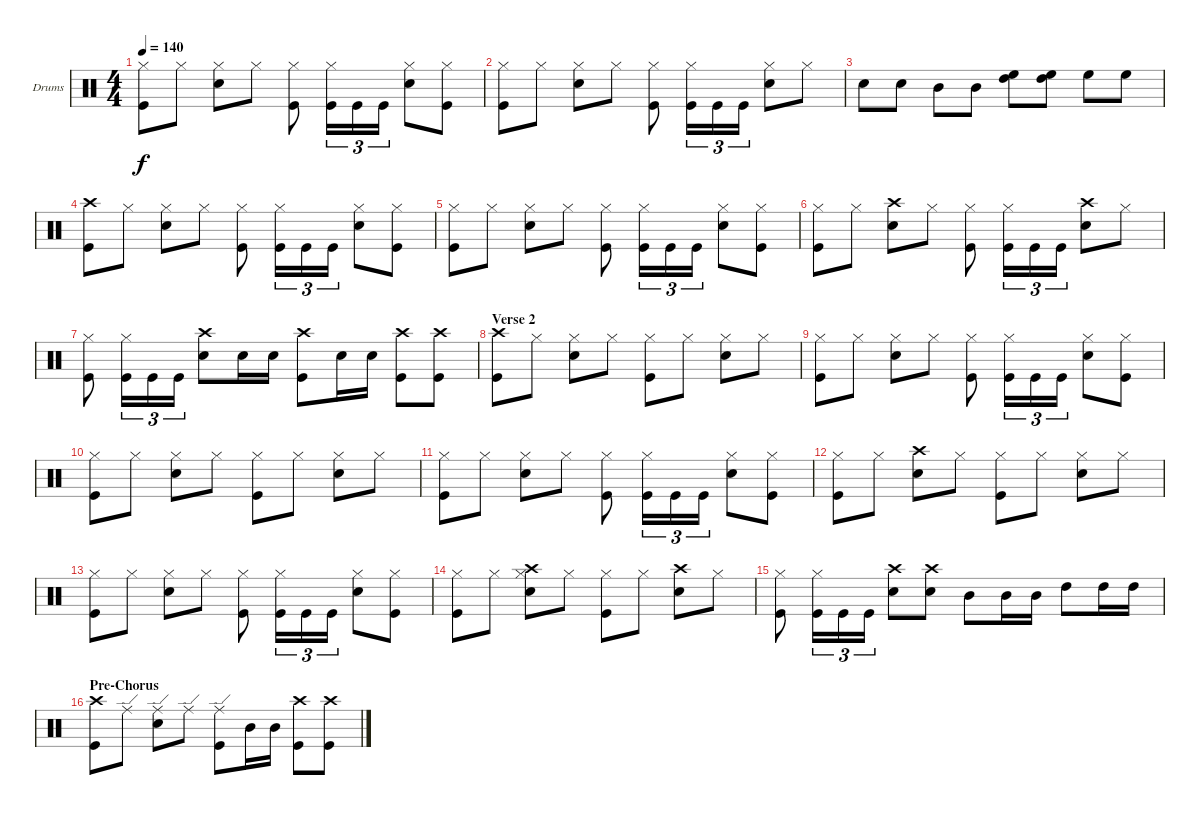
\defaultSystemsLayout 4
\bracketExtendMode groupsimilarinstruments
\firstSystemTrackNameOrientation horizontal
\otherSystemsTrackNameOrientation horizontal
\track ("Drums" "Drums") {instrument percussion}
\staff {score}
\articulation defaults
\ts (4 4)
\tempo 140
\clef neutral
\ks c
("Hi-Hat (closed)" "Kick (hit)").8{dy f} "Hi-Hat (closed)".8 ("Snare (hit) 2" "Hi-Hat (closed)").8 "Hi-Hat (closed)".8 ("Kick (hit)" "Hi-Hat (closed)").8 ("Kick (hit)" "Hi-Hat (closed)").16{tu (3 2)} "Kick (hit)".16{tu (3 2)} "Kick (hit)".16{tu (3 2)} ("Snare (hit) 2" "Hi-Hat (closed)").8 ("Kick (hit)" "Hi-Hat (closed)").8 |
("Hi-Hat (closed)" "Kick (hit)").8 "Hi-Hat (closed)".8 ("Snare (hit) 2" "Hi-Hat (closed)").8 "Hi-Hat (closed)".8 ("Kick (hit)" "Hi-Hat (closed)").8 ("Kick (hit)" "Hi-Hat (closed)").16{tu (3 2)} "Kick (hit)".16{tu (3 2)} "Kick (hit)".16{tu (3 2)} ("Snare (hit) 2" "Hi-Hat (closed)").8 "Hi-Hat (closed)".8 |
"Snare (hit) 2".8 "Snare (hit) 2".8 "Mid Tom (hit)".8 "Mid Tom (hit)".8 ("High Floor Tom (hit)" "High Tom (hit)").8 ("High Floor Tom (hit)" "High Tom (hit)").8 "High Floor Tom (hit)".8 "High Floor Tom (hit)".8 |
("Crash high (hit)" "Kick (hit)").8 "Hi-Hat (closed)".8 ("Snare (hit) 2" "Hi-Hat (closed)").8 "Hi-Hat (closed)".8 ("Kick (hit)" "Hi-Hat (closed)").8 ("Kick (hit)" "Hi-Hat (closed)").16{tu (3 2)} "Kick (hit)".16{tu (3 2)} "Kick (hit)".16{tu (3 2)} ("Snare (hit) 2" "Hi-Hat (closed)").8 ("Kick (hit)" "Hi-Hat (closed)").8 |
("Hi-Hat (closed)" "Kick (hit)").8 "Hi-Hat (closed)".8 ("Snare (hit) 2" "Hi-Hat (closed)").8 "Hi-Hat (closed)".8 ("Kick (hit)" "Hi-Hat (closed)").8 ("Kick (hit)" "Hi-Hat (closed)").16{tu (3 2)} "Kick (hit)".16{tu (3 2)} "Kick (hit)".16{tu (3 2)} ("Snare (hit) 2" "Hi-Hat (closed)").8 ("Kick (hit)" "Hi-Hat (closed)").8 |
("Hi-Hat (closed)" "Kick (hit)").8 "Hi-Hat (closed)".8 ("Crash high (hit)" "Snare (hit) 2").8 "Hi-Hat (closed)".8 ("Kick (hit)" "Hi-Hat (closed)").8 ("Kick (hit)" "Hi-Hat (closed)").16{tu (3 2)} "Kick (hit)".16{tu (3 2)} "Kick (hit)".16{tu (3 2)} ("Crash high (hit)" "Snare (hit) 2").8 "Hi-Hat (closed)".8 |
("Kick (hit)" "Hi-Hat (closed)").8 ("Kick (hit)" "Hi-Hat (closed)").16{tu (3 2)} "Kick (hit)".16{tu (3 2)} "Kick (hit)".16{tu (3 2)} ("Snare (hit) 2" "Crash high (hit)").8 "Snare (hit) 2".16 "Snare (hit) 2".16 ("Kick (hit)" "Crash high (hit)").8 "Snare (hit) 2".16 "Snare (hit) 2".16 ("Kick (hit)" "Crash high (hit)").8 ("Kick (hit)" "Crash high (hit)").8 |
\section ("" "Verse 2")
("Kick (hit)" "Crash high (hit)").8 "Hi-Hat (closed)".8 ("Snare (hit) 2" "Hi-Hat (closed)").8 "Hi-Hat (closed)".8 ("Kick (hit)" "Hi-Hat (closed)").8 "Hi-Hat (closed)".8 ("Snare (hit) 2" "Hi-Hat (closed)").8 "Hi-Hat (closed)".8 |
("Kick (hit)" "Hi-Hat (closed)").8 "Hi-Hat (closed)".8 ("Hi-Hat (closed)" "Snare (hit) 2").8 "Hi-Hat (closed)".8 ("Kick (hit)" "Hi-Hat (closed)").8 ("Kick (hit)" "Hi-Hat (closed)").16{tu (3 2)} "Kick (hit)".16{tu (3 2)} "Kick (hit)".16{tu (3 2)} ("Snare (hit) 2" "Hi-Hat (closed)").8 ("Kick (hit)" "Hi-Hat (closed)").8 |
("Hi-Hat (closed)" "Kick (hit)").8 "Hi-Hat (closed)".8 ("Hi-Hat (closed)" "Snare (hit) 2").8 "Hi-Hat (closed)".8 ("Hi-Hat (closed)" "Kick (hit)").8 "Hi-Hat (closed)".8 ("Snare (hit) 2" "Hi-Hat (closed)").8 "Hi-Hat (closed)".8 |
("Kick (hit)" "Hi-Hat (closed)").8 "Hi-Hat (closed)".8 ("Hi-Hat (closed)" "Snare (hit) 2").8 "Hi-Hat (closed)".8 ("Kick (hit)" "Hi-Hat (closed)").8 ("Kick (hit)" "Hi-Hat (closed)").16{tu (3 2)} "Kick (hit)".16{tu (3 2)} "Kick (hit)".16{tu (3 2)} ("Snare (hit) 2" "Hi-Hat (closed)").8 ("Kick (hit)" "Hi-Hat (closed)").8 |
("Hi-Hat (closed)" "Kick (hit)").8 "Hi-Hat (closed)".8 ("Crash high (hit)" "Snare (hit) 2").8 "Hi-Hat (closed)".8 ("Hi-Hat (closed)" "Kick (hit)").8 "Hi-Hat (closed)".8 ("Snare (hit) 2" "Hi-Hat (closed)").8 "Hi-Hat (closed)".8 |
("Kick (hit)" "Hi-Hat (closed)").8 "Hi-Hat (closed)".8 ("Hi-Hat (closed)" "Snare (hit) 2").8 "Hi-Hat (closed)".8 ("Kick (hit)" "Hi-Hat (closed)").8 ("Kick (hit)" "Hi-Hat (closed)").16{tu (3 2)} "Kick (hit)".16{tu (3 2)} "Kick (hit)".16{tu (3 2)} ("Snare (hit) 2" "Hi-Hat (closed)").8 ("Kick (hit)" "Hi-Hat (closed)").8 |
("Kick (hit)" "Hi-Hat (closed)").8 "Hi-Hat (closed)".8 ("Hi-Hat (closed)" "Snare (hit) 2" "Crash high (hit)").8 "Hi-Hat (closed)".8 ("Kick (hit)" "Hi-Hat (closed)").8 "Hi-Hat (closed)".8 ("Crash high (hit)" "Snare (hit) 2").8 "Hi-Hat (closed)".8 |
("Hi-Hat (closed)" "Kick (hit)").8 ("Hi-Hat (closed)" "Kick (hit)").16{tu (3 2)} "Kick (hit)".16{tu (3 2)} "Kick (hit)".16{tu (3 2)} ("Snare (hit) 2" "Crash high (hit)").8 ("Snare (hit) 2" "Crash high (hit)").8 "Mid Tom (hit)".8 "Mid Tom (hit)".16 "Mid Tom (hit)".16 "High Tom (hit)".8 "High Tom (hit)".16 "High Tom (hit)".16 |
\section ("" "Pre-Chorus")
("Crash high (hit)" "Kick (hit)").8 "Ride (edge)".8 ("Snare (hit) 2" "Ride (edge)").8 "Ride (edge)".8 ("Ride (edge)" "Kick (hit)").8 "Mid Tom (hit)".16 "Mid Tom (hit)".16 ("Crash high (hit)" "Kick (hit)").8 ("Crash high (hit)" "Kick (hit)").8
